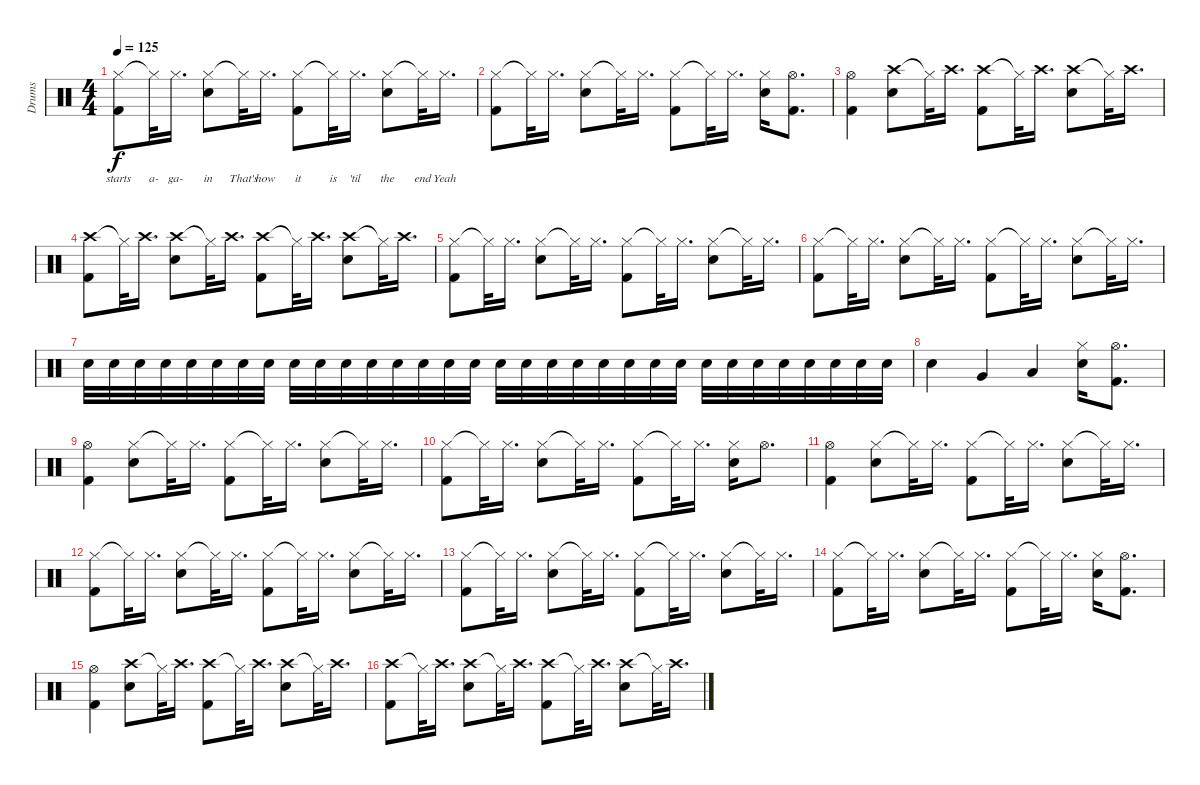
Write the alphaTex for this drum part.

\track ("Drums" "Drums") {instrument percussion}
\staff {score}
\articulation defaults
\ts (4 4)
\tempo 125
\clef neutral
\ks c
("Hi-Hat (closed)" "Kick (hit) 2").8{lyrics (0 "starts") lyrics (1 "") lyrics (2 "") lyrics (3 "") lyrics (4 "") dy f} "Hi-Hat (closed)"{t}.32{lyrics (0 "a-") lyrics (1 "") lyrics (2 "") lyrics (3 "") lyrics (4 "")} "Hi-Hat (closed)".16{d lyrics (0 "ga-") lyrics (1 "") lyrics (2 "") lyrics (3 "") lyrics (4 "")} ("Hi-Hat (closed)" "Electric Snare (hit)").8{lyrics (0 "in") lyrics (1 "") lyrics (2 "") lyrics (3 "") lyrics (4 "")} "Hi-Hat (closed)"{t}.32{lyrics (0 "That's") lyrics (1 "") lyrics (2 "") lyrics (3 "") lyrics (4 "")} "Hi-Hat (closed)".16{d lyrics (0 "how") lyrics (1 "") lyrics (2 "") lyrics (3 "") lyrics (4 "")} ("Hi-Hat (closed)" "Kick (hit) 2").8{lyrics (0 "it") lyrics (1 "") lyrics (2 "") lyrics (3 "") lyrics (4 "")} "Hi-Hat (closed)"{t}.32{lyrics (0 "is") lyrics (1 "") lyrics (2 "") lyrics (3 "") lyrics (4 "")} "Hi-Hat (closed)".16{d lyrics (0 "'til") lyrics (1 "") lyrics (2 "") lyrics (3 "") lyrics (4 "")} ("Hi-Hat (closed)" "Electric Snare (hit)").8{lyrics (0 "the") lyrics (1 "") lyrics (2 "") lyrics (3 "") lyrics (4 "")} "Hi-Hat (closed)"{t}.32{lyrics (0 "end") lyrics (1 "") lyrics (2 "") lyrics (3 "") lyrics (4 "")} "Hi-Hat (closed)".16{d lyrics (0 "Yeah") lyrics (1 "") lyrics (2 "") lyrics (3 "") lyrics (4 "")} |
("Hi-Hat (closed)" "Kick (hit) 2").8 "Hi-Hat (closed)"{t}.32 "Hi-Hat (closed)".16{d} ("Hi-Hat (closed)" "Electric Snare (hit)").8 "Hi-Hat (closed)"{t}.32 "Hi-Hat (closed)".16{d} ("Hi-Hat (closed)" "Kick (hit) 2").8 "Hi-Hat (closed)"{t}.32 "Hi-Hat (closed)".16{d} ("Hi-Hat (closed)" "Electric Snare (hit)").16 ("Hi-Hat (open)" "Kick (hit) 2").8{d} |
("Hi-Hat (open)" "Kick (hit) 2").4 ("Crash high (hit)" "Electric Snare (hit)").8 "Hi-Hat (closed)"{t}.32 "Crash high (hit)".16{d} ("Crash high (hit)" "Kick (hit) 2").8 "Hi-Hat (closed)"{t}.32 "Crash high (hit)".16{d} ("Crash high (hit)" "Electric Snare (hit)").8 "Hi-Hat (closed)"{t}.32 "Crash high (hit)".16{d} |
("Crash high (hit)" "Kick (hit) 2").8 "Hi-Hat (closed)"{t}.32 "Crash high (hit)".16{d} ("Crash high (hit)" "Electric Snare (hit)").8 "Hi-Hat (closed)"{t}.32 "Crash high (hit)".16{d} ("Crash high (hit)" "Kick (hit) 2").8 "Hi-Hat (closed)"{t}.32 "Crash high (hit)".16{d} ("Crash high (hit)" "Electric Snare (hit)").8 "Hi-Hat (closed)"{t}.32 "Crash high (hit)".16{d} |
("Hi-Hat (closed)" "Kick (hit) 2").8 "Hi-Hat (closed)"{t}.32 "Hi-Hat (closed)".16{d} ("Hi-Hat (closed)" "Electric Snare (hit)").8 "Hi-Hat (closed)"{t}.32 "Hi-Hat (closed)".16{d} ("Hi-Hat (closed)" "Kick (hit) 2").8 "Hi-Hat (closed)"{t}.32 "Hi-Hat (closed)".16{d} ("Hi-Hat (closed)" "Electric Snare (hit)").8 "Hi-Hat (closed)"{t}.32 "Hi-Hat (closed)".16{d} |
("Hi-Hat (closed)" "Kick (hit) 2").8 "Hi-Hat (closed)"{t}.32 "Hi-Hat (closed)".16{d} ("Hi-Hat (closed)" "Electric Snare (hit)").8 "Hi-Hat (closed)"{t}.32 "Hi-Hat (closed)".16{d} ("Hi-Hat (closed)" "Kick (hit) 2").8 "Hi-Hat (closed)"{t}.32 "Hi-Hat (closed)".16{d} ("Hi-Hat (closed)" "Electric Snare (hit)").8 "Hi-Hat (closed)"{t}.32 "Hi-Hat (closed)".16{d} |
"Electric Snare (hit)".32 "Electric Snare (hit)".32 "Electric Snare (hit)".32 "Electric Snare (hit)".32 "Electric Snare (hit)".32 "Electric Snare (hit)".32 "Electric Snare (hit)".32 "Electric Snare (hit)".32 "Electric Snare (hit)".32 "Electric Snare (hit)".32 "Electric Snare (hit)".32 "Electric Snare (hit)".32 "Electric Snare (hit)".32 "Electric Snare (hit)".32 "Electric Snare (hit)".32 "Electric Snare (hit)".32 "Electric Snare (hit)".32 "Electric Snare (hit)".32 "Electric Snare (hit)".32 "Electric Snare (hit)".32 "Electric Snare (hit)".32 "Electric Snare (hit)".32 "Electric Snare (hit)".32 "Electric Snare (hit)".32 "Electric Snare (hit)".32 "Electric Snare (hit)".32 "Electric Snare (hit)".32 "Electric Snare (hit)".32 "Electric Snare (hit)".32 "Electric Snare (hit)".32 "Electric Snare (hit)".32 "Electric Snare (hit)".32 |
"Electric Snare (hit)".4 "Very Low Tom (hit)".4 "Low Floor Tom (hit)".4 ("Hi-Hat (closed)" "Electric Snare (hit)").16 ("Hi-Hat (open)" "Kick (hit) 2").8{d} |
("Hi-Hat (open)" "Kick (hit) 2").4 ("Hi-Hat (closed)" "Electric Snare (hit)").8 "Hi-Hat (closed)"{t}.32 "Hi-Hat (closed)".16{d} ("Hi-Hat (closed)" "Kick (hit) 2").8 "Hi-Hat (closed)"{t}.32 "Hi-Hat (closed)".16{d} ("Hi-Hat (closed)" "Electric Snare (hit)").8 "Hi-Hat (closed)"{t}.32 "Hi-Hat (closed)".16{d} |
("Hi-Hat (closed)" "Kick (hit) 2").8 "Hi-Hat (closed)"{t}.32 "Hi-Hat (closed)".16{d} ("Hi-Hat (closed)" "Electric Snare (hit)").8 "Hi-Hat (closed)"{t}.32 "Hi-Hat (closed)".16{d} ("Hi-Hat (closed)" "Kick (hit) 2").8 "Hi-Hat (closed)"{t}.32 "Hi-Hat (closed)".16{d} ("Hi-Hat (closed)" "Electric Snare (hit)").16 "Hi-Hat (open)".8{d} |
("Hi-Hat (open)" "Kick (hit) 2").4 ("Hi-Hat (closed)" "Electric Snare (hit)").8 "Hi-Hat (closed)"{t}.32 "Hi-Hat (closed)".16{d} ("Hi-Hat (closed)" "Kick (hit) 2").8 "Hi-Hat (closed)"{t}.32 "Hi-Hat (closed)".16{d} ("Hi-Hat (closed)" "Electric Snare (hit)").8 "Hi-Hat (closed)"{t}.32 "Hi-Hat (closed)".16{d} |
("Hi-Hat (closed)" "Kick (hit) 2").8 "Hi-Hat (closed)"{t}.32 "Hi-Hat (closed)".16{d} ("Hi-Hat (closed)" "Electric Snare (hit)").8 "Hi-Hat (closed)"{t}.32 "Hi-Hat (closed)".16{d} ("Hi-Hat (closed)" "Kick (hit) 2").8 "Hi-Hat (closed)"{t}.32 "Hi-Hat (closed)".16{d} ("Hi-Hat (closed)" "Electric Snare (hit)").8 "Hi-Hat (closed)"{t}.32 "Hi-Hat (closed)".16{d} |
("Hi-Hat (closed)" "Kick (hit) 2").8 "Hi-Hat (closed)"{t}.32 "Hi-Hat (closed)".16{d} ("Hi-Hat (closed)" "Electric Snare (hit)").8 "Hi-Hat (closed)"{t}.32 "Hi-Hat (closed)".16{d} ("Hi-Hat (closed)" "Kick (hit) 2").8 "Hi-Hat (closed)"{t}.32 "Hi-Hat (closed)".16{d} ("Hi-Hat (closed)" "Electric Snare (hit)").8 "Hi-Hat (closed)"{t}.32 "Hi-Hat (closed)".16{d} |
("Hi-Hat (closed)" "Kick (hit) 2").8 "Hi-Hat (closed)"{t}.32 "Hi-Hat (closed)".16{d} ("Hi-Hat (closed)" "Electric Snare (hit)").8 "Hi-Hat (closed)"{t}.32 "Hi-Hat (closed)".16{d} ("Hi-Hat (closed)" "Kick (hit) 2").8 "Hi-Hat (closed)"{t}.32 "Hi-Hat (closed)".16{d} ("Hi-Hat (closed)" "Electric Snare (hit)").16 ("Hi-Hat (open)" "Kick (hit) 2").8{d} |
("Hi-Hat (open)" "Kick (hit) 2").4 ("Crash high (hit)" "Electric Snare (hit)").8 "Hi-Hat (closed)"{t}.32 "Crash high (hit)".16{d} ("Crash high (hit)" "Kick (hit) 2").8 "Hi-Hat (closed)"{t}.32 "Crash high (hit)".16{d} ("Crash high (hit)" "Electric Snare (hit)").8 "Hi-Hat (closed)"{t}.32 "Crash high (hit)".16{d} |
("Crash high (hit)" "Kick (hit) 2").8 "Hi-Hat (closed)"{t}.32 "Crash high (hit)".16{d} ("Crash high (hit)" "Electric Snare (hit)").8 "Hi-Hat (closed)"{t}.32 "Crash high (hit)".16{d} ("Crash high (hit)" "Kick (hit) 2").8 "Hi-Hat (closed)"{t}.32 "Crash high (hit)".16{d} ("Crash high (hit)" "Electric Snare (hit)").8 "Hi-Hat (closed)"{t}.32 "Crash high (hit)".16{d}
